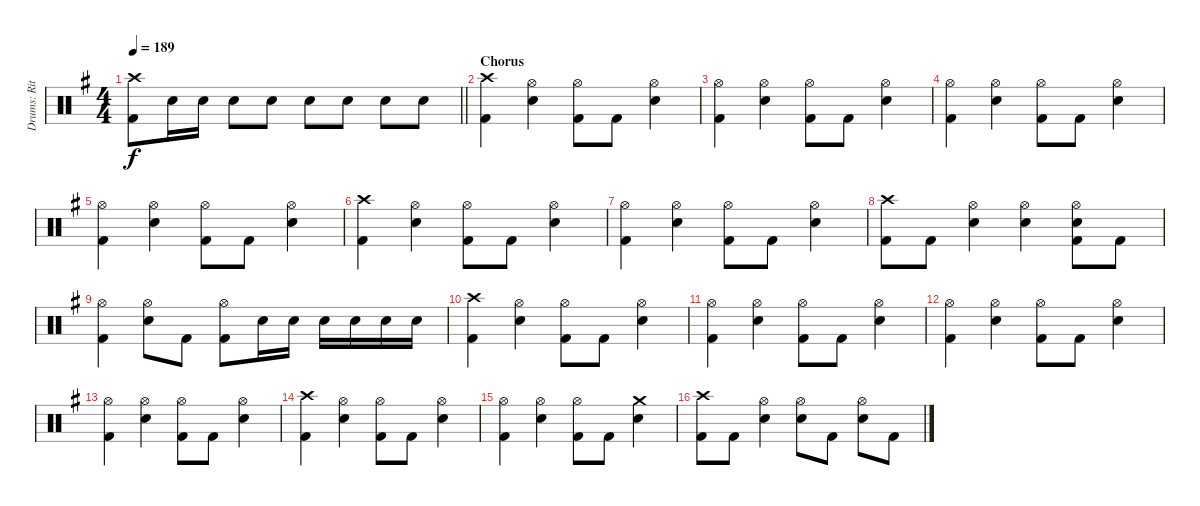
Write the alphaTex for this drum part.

\track ("Drums: Ritsu Tainaka" "Drums: Rit") {instrument percussion}
\staff {score}
\articulation defaults
\ts (4 4)
\tempo 189
\clef neutral
\barLineRight lightlight
\ks g
("Crash high (hit)" "Kick (hit) 2").8{dy f} "Electric Snare (hit)".16 "Electric Snare (hit)".16 "Electric Snare (hit)".8 "Electric Snare (hit)".8 "Electric Snare (hit)".8 "Electric Snare (hit)".8 "Electric Snare (hit)".8 "Electric Snare (hit)".8 |
\section ("" "Chorus")
("Crash high (hit)" "Kick (hit) 2").4 ("Hi-Hat (open)" "Electric Snare (hit)").4 ("Hi-Hat (open)" "Kick (hit) 2").8 "Kick (hit) 2".8 ("Hi-Hat (open)" "Electric Snare (hit)").4 |
("Hi-Hat (open)" "Kick (hit) 2").4 ("Hi-Hat (open)" "Electric Snare (hit)").4 ("Hi-Hat (open)" "Kick (hit) 2").8 "Kick (hit) 2".8 ("Hi-Hat (open)" "Electric Snare (hit)").4 |
("Hi-Hat (open)" "Kick (hit) 2").4 ("Hi-Hat (open)" "Electric Snare (hit)").4 ("Hi-Hat (open)" "Kick (hit) 2").8 "Kick (hit) 2".8 ("Hi-Hat (open)" "Electric Snare (hit)").4 |
("Hi-Hat (open)" "Kick (hit) 2").4 ("Hi-Hat (open)" "Electric Snare (hit)").4 ("Hi-Hat (open)" "Kick (hit) 2").8 "Kick (hit) 2".8 ("Hi-Hat (open)" "Electric Snare (hit)").4 |
("Crash high (hit)" "Kick (hit) 2").4 ("Hi-Hat (open)" "Electric Snare (hit)").4 ("Hi-Hat (open)" "Kick (hit) 2").8 "Kick (hit) 2".8 ("Hi-Hat (open)" "Electric Snare (hit)").4 |
("Hi-Hat (open)" "Kick (hit) 2").4 ("Hi-Hat (open)" "Electric Snare (hit)").4 ("Hi-Hat (open)" "Kick (hit) 2").8 "Kick (hit) 2".8 ("Hi-Hat (open)" "Electric Snare (hit)").4 |
("Crash high (hit)" "Kick (hit) 2").8 "Kick (hit) 2".8 ("Hi-Hat (open)" "Electric Snare (hit)").4 ("Hi-Hat (open)" "Electric Snare (hit)").4 ("Hi-Hat (open)" "Electric Snare (hit)" "Kick (hit) 2").8 "Kick (hit) 2".8 |
("Hi-Hat (open)" "Kick (hit) 2").4 ("Hi-Hat (open)" "Electric Snare (hit)").8 "Kick (hit) 2".8 ("Hi-Hat (open)" "Kick (hit) 2").8 "Electric Snare (hit)".16 "Electric Snare (hit)".16 "Electric Snare (hit)".16 "Electric Snare (hit)".16 "Electric Snare (hit)".16 "Electric Snare (hit)".16 |
("Crash high (hit)" "Kick (hit) 2").4 ("Hi-Hat (open)" "Electric Snare (hit)").4 ("Hi-Hat (open)" "Kick (hit) 2").8 "Kick (hit) 2".8 ("Hi-Hat (open)" "Electric Snare (hit)").4 |
("Hi-Hat (open)" "Kick (hit) 2").4 ("Hi-Hat (open)" "Electric Snare (hit)").4 ("Hi-Hat (open)" "Kick (hit) 2").8 "Kick (hit) 2".8 ("Hi-Hat (open)" "Electric Snare (hit)").4 |
("Hi-Hat (open)" "Kick (hit) 2").4 ("Hi-Hat (open)" "Electric Snare (hit)").4 ("Hi-Hat (open)" "Kick (hit) 2").8 "Kick (hit) 2".8 ("Hi-Hat (open)" "Electric Snare (hit)").4 |
("Hi-Hat (open)" "Kick (hit) 2").4 ("Hi-Hat (open)" "Electric Snare (hit)").4 ("Hi-Hat (open)" "Kick (hit) 2").8 "Kick (hit) 2".8 ("Hi-Hat (open)" "Electric Snare (hit)").4 |
("Crash high (hit)" "Kick (hit) 2").4 ("Hi-Hat (open)" "Electric Snare (hit)").4 ("Hi-Hat (open)" "Kick (hit) 2").8 "Kick (hit) 2".8 ("Hi-Hat (open)" "Electric Snare (hit)").4 |
("Hi-Hat (open)" "Kick (hit) 2").4 ("Hi-Hat (open)" "Electric Snare (hit)").4 ("Hi-Hat (open)" "Kick (hit) 2").8 "Kick (hit) 2".8 ("Crash medium (hit)" "Electric Snare (hit)").4 |
("Crash high (hit)" "Kick (hit) 2").8 "Kick (hit) 2".8 ("Hi-Hat (open)" "Electric Snare (hit)").4 ("Hi-Hat (open)" "Electric Snare (hit)").8 "Kick (hit) 2".8 ("Hi-Hat (open)" "Electric Snare (hit)").8 "Kick (hit) 2".8
